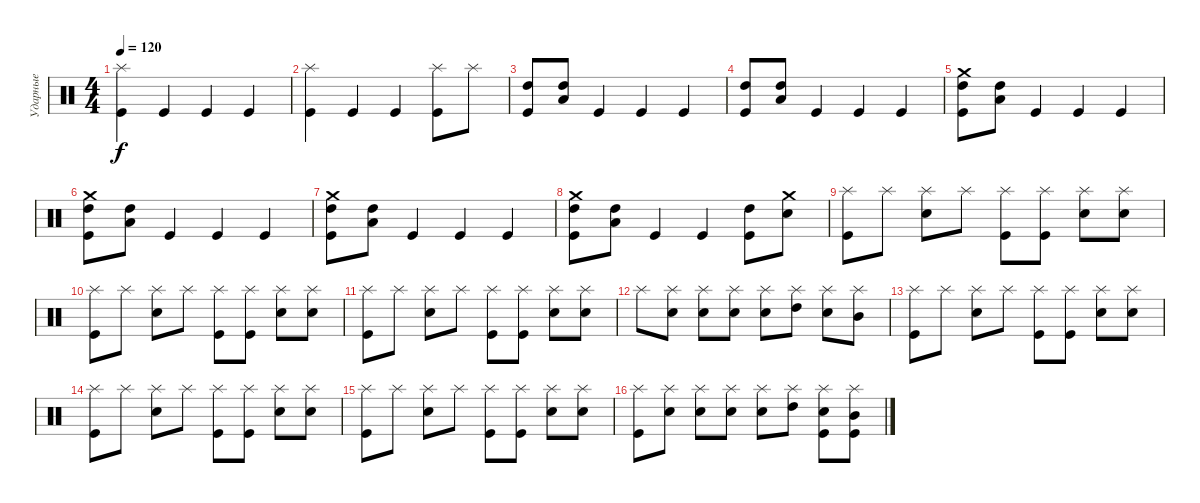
\track ("Ударные" "Ударные") {instrument percussion}
\staff {score}
\articulation defaults
\ts (4 4)
\tempo 120
\clef neutral
\ks c
("Splash (hit)" "Kick (hit)").4{dy f} "Kick (hit)".4 "Kick (hit)".4 "Kick (hit)".4 |
("Splash (hit)" "Kick (hit)").4 "Kick (hit)".4 "Kick (hit)".4 ("Splash (hit)" "Kick (hit)").8 "Splash (hit)".8 |
("High Tom (hit)" "Kick (hit)").8 ("High Tom (hit)" "Low Floor Tom (hit)").8 "Kick (hit)".4 "Kick (hit)".4 "Kick (hit)".4 |
("High Tom (hit)" "Kick (hit)").8 ("High Tom (hit)" "Low Floor Tom (hit)").8 "Kick (hit)".4 "Kick (hit)".4 "Kick (hit)".4 |
("Crash medium (hit)" "High Tom (hit)" "Kick (hit)").8 ("High Tom (hit)" "Low Floor Tom (hit)").8 "Kick (hit)".4 "Kick (hit)".4 "Kick (hit)".4 |
("Crash medium (hit)" "High Tom (hit)" "Kick (hit)").8 ("High Tom (hit)" "Low Floor Tom (hit)").8 "Kick (hit)".4 "Kick (hit)".4 "Kick (hit)".4 |
("Crash medium (hit)" "High Tom (hit)" "Kick (hit)").8 ("High Tom (hit)" "Low Floor Tom (hit)").8 "Kick (hit)".4 "Kick (hit)".4 "Kick (hit)".4 |
("Crash medium (hit)" "High Tom (hit)" "Kick (hit)").8 ("High Tom (hit)" "Low Floor Tom (hit)").8 "Kick (hit)".4 "Kick (hit)".4 ("High Tom (hit)" "Kick (hit)").8 ("Crash medium (hit)" "Snare (hit) 2").8 |
("Splash (hit)" "Kick (hit)").8 "Splash (hit)".8 ("Splash (hit)" "Snare (hit) 2").8 "Splash (hit)".8 ("Splash (hit)" "Kick (hit)").8 ("Splash (hit)" "Kick (hit)").8 ("Splash (hit)" "Snare (hit) 2").8 ("Splash (hit)" "Snare (hit) 2").8 |
("Splash (hit)" "Kick (hit)").8 "Splash (hit)".8 ("Splash (hit)" "Snare (hit) 2").8 "Splash (hit)".8 ("Splash (hit)" "Kick (hit)").8 ("Splash (hit)" "Kick (hit)").8 ("Splash (hit)" "Snare (hit) 2").8 ("Splash (hit)" "Snare (hit) 2").8 |
("Splash (hit)" "Kick (hit)").8 "Splash (hit)".8 ("Splash (hit)" "Snare (hit) 2").8 "Splash (hit)".8 ("Splash (hit)" "Kick (hit)").8 ("Splash (hit)" "Kick (hit)").8 ("Splash (hit)" "Snare (hit) 2").8 ("Splash (hit)" "Snare (hit) 2").8 |
"Splash (hit)".8 ("Splash (hit)" "Electric Snare (hit)").8 ("Splash (hit)" "Snare (hit) 2").8 ("Splash (hit)" "Snare (hit) 2").8 ("Splash (hit)" "Electric Snare (hit)").8 ("Splash (hit)" "High Tom (hit)").8 ("Splash (hit)" "Snare (hit) 2").8 ("Splash (hit)" "Mid Tom (hit)").8 |
("Splash (hit)" "Kick (hit)").8 "Splash (hit)".8 ("Splash (hit)" "Snare (hit) 2").8 "Splash (hit)".8 ("Splash (hit)" "Kick (hit)").8 ("Splash (hit)" "Kick (hit)").8 ("Splash (hit)" "Snare (hit) 2").8 ("Splash (hit)" "Snare (hit) 2").8 |
("Splash (hit)" "Kick (hit)").8 "Splash (hit)".8 ("Splash (hit)" "Snare (hit) 2").8 "Splash (hit)".8 ("Splash (hit)" "Kick (hit)").8 ("Splash (hit)" "Kick (hit)").8 ("Splash (hit)" "Snare (hit) 2").8 ("Splash (hit)" "Snare (hit) 2").8 |
("Splash (hit)" "Kick (hit)").8 "Splash (hit)".8 ("Splash (hit)" "Snare (hit) 2").8 "Splash (hit)".8 ("Splash (hit)" "Kick (hit)").8 ("Splash (hit)" "Kick (hit)").8 ("Splash (hit)" "Snare (hit) 2").8 ("Splash (hit)" "Snare (hit) 2").8 |
("Splash (hit)" "Kick (hit)").8 ("Splash (hit)" "Electric Snare (hit)").8 ("Splash (hit)" "Snare (hit) 2").8 ("Splash (hit)" "Snare (hit) 2").8 ("Splash (hit)" "Electric Snare (hit)").8 ("Splash (hit)" "High Tom (hit)").8 ("Splash (hit)" "Snare (hit) 2" "Kick (hit)").8 ("Splash (hit)" "Mid Tom (hit)" "Kick (hit)").8
